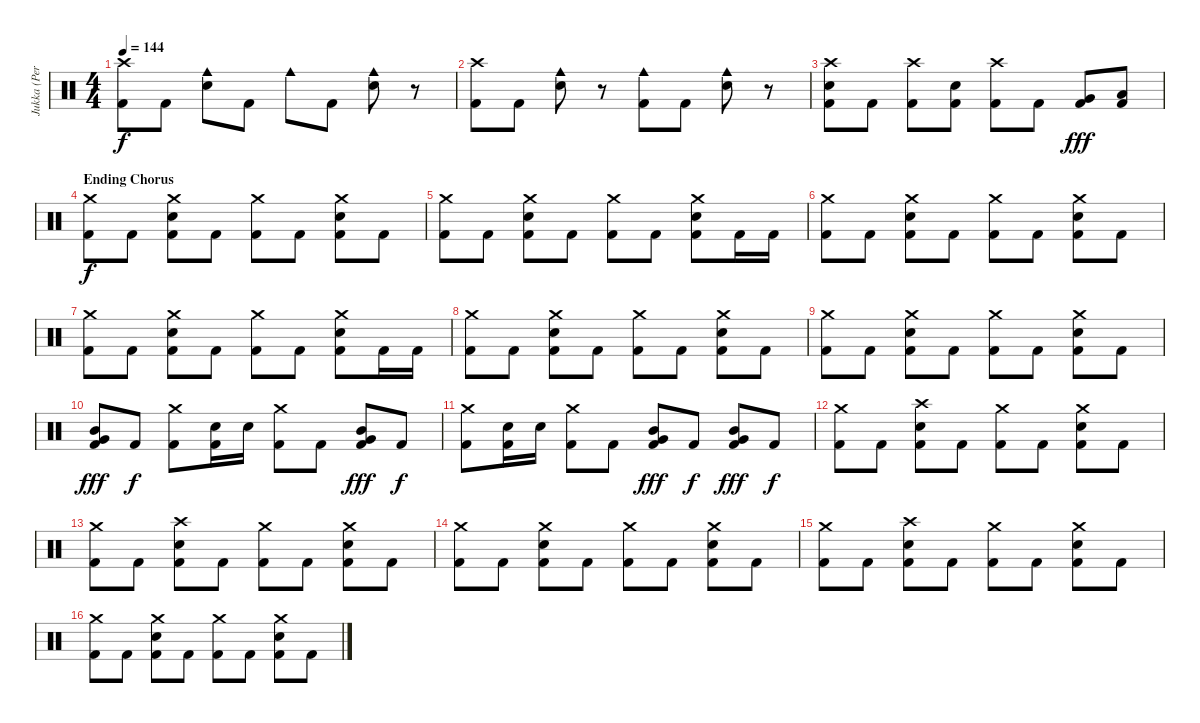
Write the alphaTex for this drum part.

\track ("Jukka (Percussion)" "Jukka (Per") {instrument percussion}
\staff {score}
\articulation defaults
\ts (4 4)
\tempo 144
\clef neutral
\ks c
("Crash high (hit)" "Kick (hit) 2").8{dy f} "Kick (hit) 2".8 ("Cowbell medium (hit)" "Electric Snare (hit)").8 "Kick (hit) 2".8 "Cowbell medium (hit)".8 "Kick (hit) 2".8 ("Cowbell medium (hit)" "Electric Snare (hit)").8 r.8 |
("Crash high (hit)" "Kick (hit) 2").8 "Kick (hit) 2".8 ("Cowbell medium (hit)" "Electric Snare (hit)").8 r.8 ("Cowbell medium (hit)" "Kick (hit) 2").8 "Kick (hit) 2".8 ("Cowbell medium (hit)" "Electric Snare (hit)").8 r.8 |
("Crash high (hit)" "Electric Snare (hit)" "Kick (hit) 2").8 "Kick (hit) 2".8 ("Crash high (hit)" "Kick (hit) 2").8 ("Electric Snare (hit)" "Kick (hit) 2").8 ("Crash high (hit)" "Kick (hit) 2").8 "Kick (hit) 2".8 ("Very Low Tom (hit)" "Kick (hit) 2").8{dy fff} ("Low Floor Tom (hit)" "Kick (hit) 2").8 |
\section ("" "Ending Chorus")
("Crash medium (hit)" "Kick (hit) 2").8{dy f} "Kick (hit) 2".8 ("Crash medium (hit)" "Electric Snare (hit)" "Kick (hit) 2").8 "Kick (hit) 2".8 ("Crash medium (hit)" "Kick (hit) 2").8 "Kick (hit) 2".8 ("Crash medium (hit)" "Electric Snare (hit)" "Kick (hit) 2").8 "Kick (hit) 2".8 |
("Crash medium (hit)" "Kick (hit) 2").8 "Kick (hit) 2".8 ("Crash medium (hit)" "Electric Snare (hit)" "Kick (hit) 2").8 "Kick (hit) 2".8 ("Crash medium (hit)" "Kick (hit) 2").8 "Kick (hit) 2".8 ("Crash medium (hit)" "Electric Snare (hit)" "Kick (hit) 2").8 "Kick (hit) 2".16 "Kick (hit) 2".16 |
("Crash medium (hit)" "Kick (hit) 2").8 "Kick (hit) 2".8 ("Crash medium (hit)" "Electric Snare (hit)" "Kick (hit) 2").8 "Kick (hit) 2".8 ("Crash medium (hit)" "Kick (hit) 2").8 "Kick (hit) 2".8 ("Crash medium (hit)" "Electric Snare (hit)" "Kick (hit) 2").8 "Kick (hit) 2".8 |
("Crash medium (hit)" "Kick (hit) 2").8 "Kick (hit) 2".8 ("Crash medium (hit)" "Electric Snare (hit)" "Kick (hit) 2").8 "Kick (hit) 2".8 ("Crash medium (hit)" "Kick (hit) 2").8 "Kick (hit) 2".8 ("Crash medium (hit)" "Electric Snare (hit)" "Kick (hit) 2").8 "Kick (hit) 2".16 "Kick (hit) 2".16 |
("Crash medium (hit)" "Kick (hit) 2").8 "Kick (hit) 2".8 ("Crash medium (hit)" "Electric Snare (hit)" "Kick (hit) 2").8 "Kick (hit) 2".8 ("Crash medium (hit)" "Kick (hit) 2").8 "Kick (hit) 2".8 ("Crash medium (hit)" "Electric Snare (hit)" "Kick (hit) 2").8 "Kick (hit) 2".8 |
("Crash medium (hit)" "Kick (hit) 2").8 "Kick (hit) 2".8 ("Crash medium (hit)" "Electric Snare (hit)" "Kick (hit) 2").8 "Kick (hit) 2".8 ("Crash medium (hit)" "Kick (hit) 2").8 "Kick (hit) 2".8 ("Crash medium (hit)" "Electric Snare (hit)" "Kick (hit) 2").8 "Kick (hit) 2".8 |
("Mid Tom (hit)" "Very Low Tom (hit)" "Kick (hit) 2").8{dy fff} "Kick (hit) 2".8{dy f} ("Crash medium (hit)" "Kick (hit) 2").8 ("Electric Snare (hit)" "Kick (hit) 2").16 "Electric Snare (hit)".16 ("Crash medium (hit)" "Kick (hit) 2").8 "Kick (hit) 2".8 ("Mid Tom (hit)" "Very Low Tom (hit)" "Kick (hit) 2").8{dy fff} "Kick (hit) 2".8{dy f} |
("Crash medium (hit)" "Kick (hit) 2").8 ("Electric Snare (hit)" "Kick (hit) 2").16 "Electric Snare (hit)".16 ("Crash medium (hit)" "Kick (hit) 2").8 "Kick (hit) 2".8 ("Mid Tom (hit)" "Very Low Tom (hit)" "Kick (hit) 2").8{dy fff} "Kick (hit) 2".8{dy f} ("Mid Tom (hit)" "Very Low Tom (hit)" "Kick (hit) 2").8{dy fff} "Kick (hit) 2".8{dy f} |
("Crash medium (hit)" "Kick (hit) 2").8 "Kick (hit) 2".8 ("Crash high (hit)" "Electric Snare (hit)" "Kick (hit) 2").8 "Kick (hit) 2".8 ("Crash medium (hit)" "Kick (hit) 2").8 "Kick (hit) 2".8 ("Crash medium (hit)" "Electric Snare (hit)" "Kick (hit) 2").8 "Kick (hit) 2".8 |
("Crash medium (hit)" "Kick (hit) 2").8 "Kick (hit) 2".8 ("Crash high (hit)" "Electric Snare (hit)" "Kick (hit) 2").8 "Kick (hit) 2".8 ("Crash medium (hit)" "Kick (hit) 2").8 "Kick (hit) 2".8 ("Crash medium (hit)" "Electric Snare (hit)" "Kick (hit) 2").8 "Kick (hit) 2".8 |
("Crash medium (hit)" "Kick (hit) 2").8 "Kick (hit) 2".8 ("Crash medium (hit)" "Electric Snare (hit)" "Kick (hit) 2").8 "Kick (hit) 2".8 ("Crash medium (hit)" "Kick (hit) 2").8 "Kick (hit) 2".8 ("Crash medium (hit)" "Electric Snare (hit)" "Kick (hit) 2").8 "Kick (hit) 2".8 |
("Crash medium (hit)" "Kick (hit) 2").8 "Kick (hit) 2".8 ("Crash high (hit)" "Electric Snare (hit)" "Kick (hit) 2").8 "Kick (hit) 2".8 ("Crash medium (hit)" "Kick (hit) 2").8 "Kick (hit) 2".8 ("Crash medium (hit)" "Electric Snare (hit)" "Kick (hit) 2").8 "Kick (hit) 2".8 |
("Crash medium (hit)" "Kick (hit) 2").8 "Kick (hit) 2".8 ("Crash medium (hit)" "Electric Snare (hit)" "Kick (hit) 2").8 "Kick (hit) 2".8 ("Crash medium (hit)" "Kick (hit) 2").8 "Kick (hit) 2".8 ("Crash medium (hit)" "Electric Snare (hit)" "Kick (hit) 2").8 "Kick (hit) 2".8
